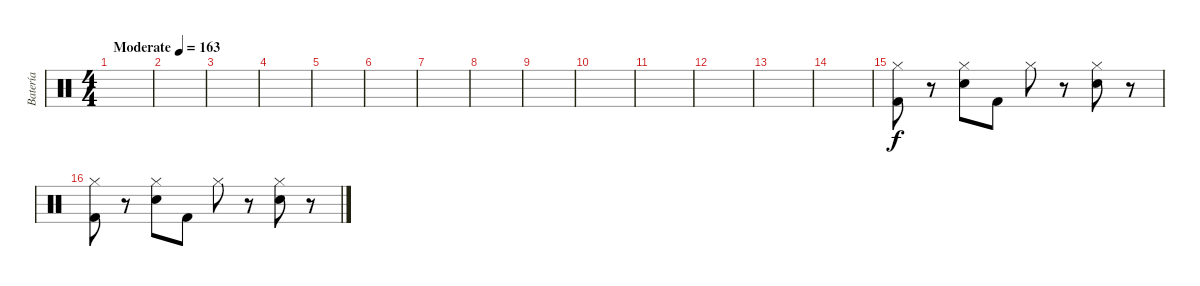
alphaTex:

\track ("Batería" "Batería") {instrument percussion}
\staff {score}
\articulation defaults
\ts (4 4)
\tempo (163 "Moderate")
\clef neutral
\ks c
|
|
|
|
|
|
|
|
|
|
|
|
|
|
("Hi-Hat (closed)" "Kick (hit) 2").8 r.8 ("Hi-Hat (closed)" "Snare (hit) 2").8 "Kick (hit) 2".8 "Hi-Hat (closed)".8 r.8 ("Hi-Hat (closed)" "Snare (hit) 2").8 r.8 |
("Hi-Hat (closed)" "Kick (hit) 2").8 r.8 ("Hi-Hat (closed)" "Snare (hit) 2").8 "Kick (hit) 2".8 "Hi-Hat (closed)".8 r.8 ("Hi-Hat (closed)" "Snare (hit) 2").8 r.8
